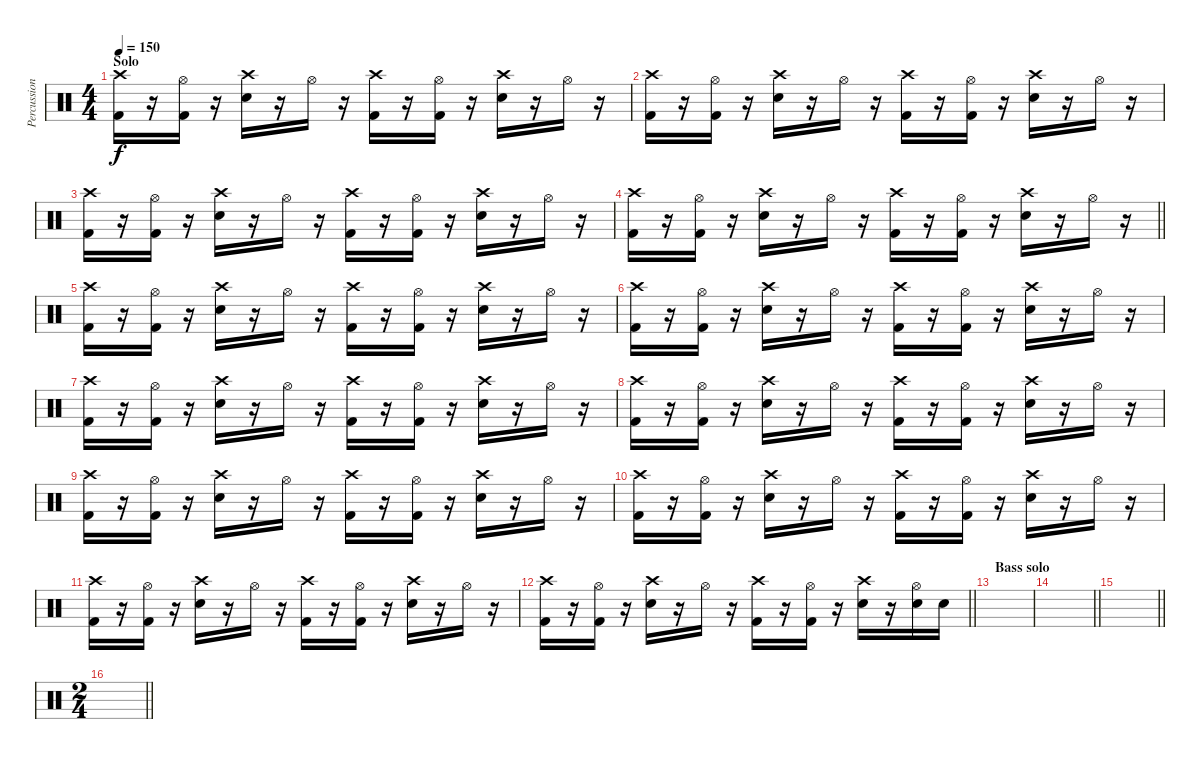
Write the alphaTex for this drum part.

\track ("Percussion" "Percussion") {instrument percussion}
\staff {score}
\articulation defaults
\ts (4 4)
\section ("" "Solo")
\tempo 150
\clef neutral
\ks c
("Crash high (hit)" "Kick (hit) 2").16{dy f} r.16 ("Hi-Hat (open)" "Kick (hit) 2").16 r.16 ("Crash high (hit)" "Snare (hit) 2").16 r.16 "Hi-Hat (open)".16 r.16 ("Crash high (hit)" "Kick (hit) 2").16 r.16 ("Hi-Hat (open)" "Kick (hit) 2").16 r.16 ("Crash high (hit)" "Snare (hit) 2").16 r.16 "Hi-Hat (open)".16 r.16 |
("Crash high (hit)" "Kick (hit) 2").16 r.16 ("Hi-Hat (open)" "Kick (hit) 2").16 r.16 ("Crash high (hit)" "Snare (hit) 2").16 r.16 "Hi-Hat (open)".16 r.16 ("Crash high (hit)" "Kick (hit) 2").16 r.16 ("Hi-Hat (open)" "Kick (hit) 2").16 r.16 ("Crash high (hit)" "Snare (hit) 2").16 r.16 "Hi-Hat (open)".16 r.16 |
("Crash high (hit)" "Kick (hit) 2").16 r.16 ("Hi-Hat (open)" "Kick (hit) 2").16 r.16 ("Crash high (hit)" "Snare (hit) 2").16 r.16 "Hi-Hat (open)".16 r.16 ("Crash high (hit)" "Kick (hit) 2").16 r.16 ("Hi-Hat (open)" "Kick (hit) 2").16 r.16 ("Crash high (hit)" "Snare (hit) 2").16 r.16 "Hi-Hat (open)".16 r.16 |
\barLineRight lightlight
("Crash high (hit)" "Kick (hit) 2").16 r.16 ("Hi-Hat (open)" "Kick (hit) 2").16 r.16 ("Crash high (hit)" "Snare (hit) 2").16 r.16 "Hi-Hat (open)".16 r.16 ("Crash high (hit)" "Kick (hit) 2").16 r.16 ("Hi-Hat (open)" "Kick (hit) 2").16 r.16 ("Crash high (hit)" "Snare (hit) 2").16 r.16 "Hi-Hat (open)".16 r.16 |
("Crash high (hit)" "Kick (hit) 2").16 r.16 ("Hi-Hat (open)" "Kick (hit) 2").16 r.16 ("Crash high (hit)" "Snare (hit) 2").16 r.16 "Hi-Hat (open)".16 r.16 ("Crash high (hit)" "Kick (hit) 2").16 r.16 ("Hi-Hat (open)" "Kick (hit) 2").16 r.16 ("Crash high (hit)" "Snare (hit) 2").16 r.16 "Hi-Hat (open)".16 r.16 |
("Crash high (hit)" "Kick (hit) 2").16 r.16 ("Hi-Hat (open)" "Kick (hit) 2").16 r.16 ("Crash high (hit)" "Snare (hit) 2").16 r.16 "Hi-Hat (open)".16 r.16 ("Crash high (hit)" "Kick (hit) 2").16 r.16 ("Hi-Hat (open)" "Kick (hit) 2").16 r.16 ("Crash high (hit)" "Snare (hit) 2").16 r.16 "Hi-Hat (open)".16 r.16 |
("Crash high (hit)" "Kick (hit) 2").16 r.16 ("Hi-Hat (open)" "Kick (hit) 2").16 r.16 ("Crash high (hit)" "Snare (hit) 2").16 r.16 "Hi-Hat (open)".16 r.16 ("Crash high (hit)" "Kick (hit) 2").16 r.16 ("Hi-Hat (open)" "Kick (hit) 2").16 r.16 ("Crash high (hit)" "Snare (hit) 2").16 r.16 "Hi-Hat (open)".16 r.16 |
("Crash high (hit)" "Kick (hit) 2").16 r.16 ("Hi-Hat (open)" "Kick (hit) 2").16 r.16 ("Crash high (hit)" "Snare (hit) 2").16 r.16 "Hi-Hat (open)".16 r.16 ("Crash high (hit)" "Kick (hit) 2").16 r.16 ("Hi-Hat (open)" "Kick (hit) 2").16 r.16 ("Crash high (hit)" "Snare (hit) 2").16 r.16 "Hi-Hat (open)".16 r.16 |
("Crash high (hit)" "Kick (hit) 2").16 r.16 ("Hi-Hat (open)" "Kick (hit) 2").16 r.16 ("Crash high (hit)" "Snare (hit) 2").16 r.16 "Hi-Hat (open)".16 r.16 ("Crash high (hit)" "Kick (hit) 2").16 r.16 ("Hi-Hat (open)" "Kick (hit) 2").16 r.16 ("Crash high (hit)" "Snare (hit) 2").16 r.16 "Hi-Hat (open)".16 r.16 |
("Crash high (hit)" "Kick (hit) 2").16 r.16 ("Hi-Hat (open)" "Kick (hit) 2").16 r.16 ("Crash high (hit)" "Snare (hit) 2").16 r.16 "Hi-Hat (open)".16 r.16 ("Crash high (hit)" "Kick (hit) 2").16 r.16 ("Hi-Hat (open)" "Kick (hit) 2").16 r.16 ("Crash high (hit)" "Snare (hit) 2").16 r.16 "Hi-Hat (open)".16 r.16 |
("Crash high (hit)" "Kick (hit) 2").16 r.16 ("Hi-Hat (open)" "Kick (hit) 2").16 r.16 ("Crash high (hit)" "Snare (hit) 2").16 r.16 "Hi-Hat (open)".16 r.16 ("Crash high (hit)" "Kick (hit) 2").16 r.16 ("Hi-Hat (open)" "Kick (hit) 2").16 r.16 ("Crash high (hit)" "Snare (hit) 2").16 r.16 "Hi-Hat (open)".16 r.16 |
\barLineRight lightlight
("Crash high (hit)" "Kick (hit) 2").16 r.16 ("Hi-Hat (open)" "Kick (hit) 2").16 r.16 ("Crash high (hit)" "Snare (hit) 2").16 r.16 "Hi-Hat (open)".16 r.16 ("Crash high (hit)" "Kick (hit) 2").16 r.16 ("Hi-Hat (open)" "Kick (hit) 2").16 r.16 ("Crash high (hit)" "Snare (hit) 2").16 r.16 ("Hi-Hat (open)" "Snare (hit) 2").16 "Snare (hit) 2".16 |
\section ("" "Bass solo")
|
\barLineRight lightlight
|
\barLineRight lightlight
|
\ts (2 4)
\barLineRight lightlight
